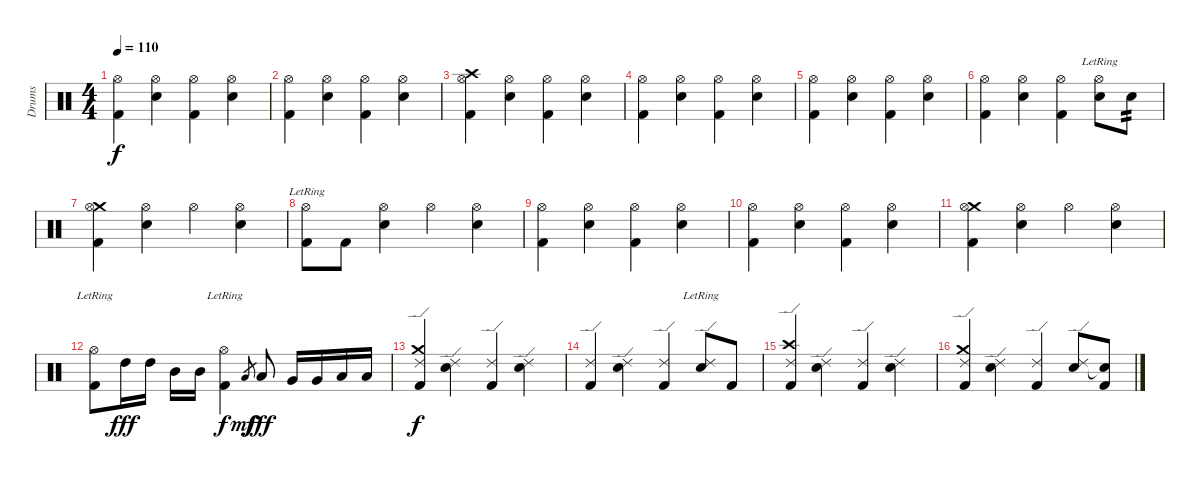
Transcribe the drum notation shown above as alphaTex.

\track ("Drums" "Drums") {instrument percussion}
\staff {score}
\articulation defaults
\ts (4 4)
\tempo 110
\clef neutral
\ks c
("Hi-Hat (open)" "Kick (hit) 2").4{dy f} ("Hi-Hat (open)" "Electric Snare (hit)").4 ("Hi-Hat (open)" "Kick (hit) 2").4 ("Hi-Hat (open)" "Electric Snare (hit)").4 |
("Hi-Hat (open)" "Kick (hit) 2").4 ("Hi-Hat (open)" "Electric Snare (hit)").4 ("Hi-Hat (open)" "Kick (hit) 2").4 ("Hi-Hat (open)" "Electric Snare (hit)").4 |
("Crash high (hit)" "Hi-Hat (open)" "Kick (hit) 2").4 ("Hi-Hat (open)" "Electric Snare (hit)").4 ("Hi-Hat (open)" "Kick (hit) 2").4 ("Hi-Hat (open)" "Electric Snare (hit)").4 |
("Hi-Hat (open)" "Kick (hit) 2").4 ("Hi-Hat (open)" "Electric Snare (hit)").4 ("Hi-Hat (open)" "Kick (hit) 2").4 ("Hi-Hat (open)" "Electric Snare (hit)").4 |
("Hi-Hat (open)" "Kick (hit) 2").4 ("Hi-Hat (open)" "Electric Snare (hit)").4 ("Hi-Hat (open)" "Kick (hit) 2").4 ("Hi-Hat (open)" "Electric Snare (hit)").4 |
("Hi-Hat (open)" "Kick (hit) 2").4 ("Hi-Hat (open)" "Electric Snare (hit)").4 ("Hi-Hat (open)" "Kick (hit) 2").4 ("Hi-Hat (open)"{lr} "Electric Snare (hit)").8 "Electric Snare (hit)".8{tp 2} |
("Crash medium (hit)" "Hi-Hat (open)" "Kick (hit) 2").4 ("Hi-Hat (open)" "Electric Snare (hit)").4 "Hi-Hat (open)".4 ("Hi-Hat (open)" "Electric Snare (hit)").4 |
("Hi-Hat (open)"{lr} "Kick (hit) 2").8 "Kick (hit) 2".8 ("Hi-Hat (open)" "Electric Snare (hit)").4 "Hi-Hat (open)".4 ("Hi-Hat (open)" "Electric Snare (hit)").4 |
("Hi-Hat (open)" "Kick (hit) 2").4 ("Hi-Hat (open)" "Electric Snare (hit)").4 ("Hi-Hat (open)" "Kick (hit) 2").4 ("Hi-Hat (open)" "Electric Snare (hit)").4 |
("Hi-Hat (open)" "Kick (hit) 2").4 ("Hi-Hat (open)" "Electric Snare (hit)").4 ("Hi-Hat (open)" "Kick (hit) 2").4 ("Hi-Hat (open)" "Electric Snare (hit)").4 |
("Crash medium (hit)" "Hi-Hat (open)" "Kick (hit) 2").4 ("Hi-Hat (open)" "Electric Snare (hit)").4 "Hi-Hat (open)".4 ("Hi-Hat (open)" "Electric Snare (hit)").4 |
("Hi-Hat (open)"{lr} "Kick (hit) 2").8 "High Tom (hit)".16{dy fff} "High Tom (hit)".16 "Mid Tom (hit)".16 "Mid Tom (hit)".16 ("Hi-Hat (open)"{lr} "Kick (hit) 2").4{dy f} "Low Tom (hit)".8{gr dy mf} "Low Tom (hit)".8{dy fff} "Very Low Tom (hit)".16 "Very Low Tom (hit)".16 "Low Floor Tom (hit)".16 "Low Floor Tom (hit)".16 |
("Crash medium (hit)" "Ride (edge) 2" "Kick (hit) 2").4{dy f} ("Ride (edge) 2" "Electric Snare (hit)").4 ("Ride (edge) 2" "Kick (hit) 2").4 ("Ride (edge) 2" "Electric Snare (hit)").4 |
("Ride (edge) 2" "Kick (hit) 2").4 ("Ride (edge) 2" "Electric Snare (hit)").4 ("Ride (edge) 2" "Kick (hit) 2").4 ("Ride (edge) 2"{lr} "Electric Snare (hit)").8 "Kick (hit) 2".8 |
("Crash high (hit)" "Ride (edge) 2" "Kick (hit) 2").4 ("Ride (edge) 2" "Electric Snare (hit)").4 ("Ride (edge) 2" "Kick (hit) 2").4 ("Ride (edge) 2" "Electric Snare (hit)").4 |
("Crash medium (hit)" "Ride (edge) 2" "Kick (hit) 2").4 ("Ride (edge) 2" "Electric Snare (hit)").4 ("Ride (edge) 2" "Kick (hit) 2").4 ("Ride (edge) 2" "Electric Snare (hit)").8 ("Snare (hit)"{t} "Kick (hit) 2").8
